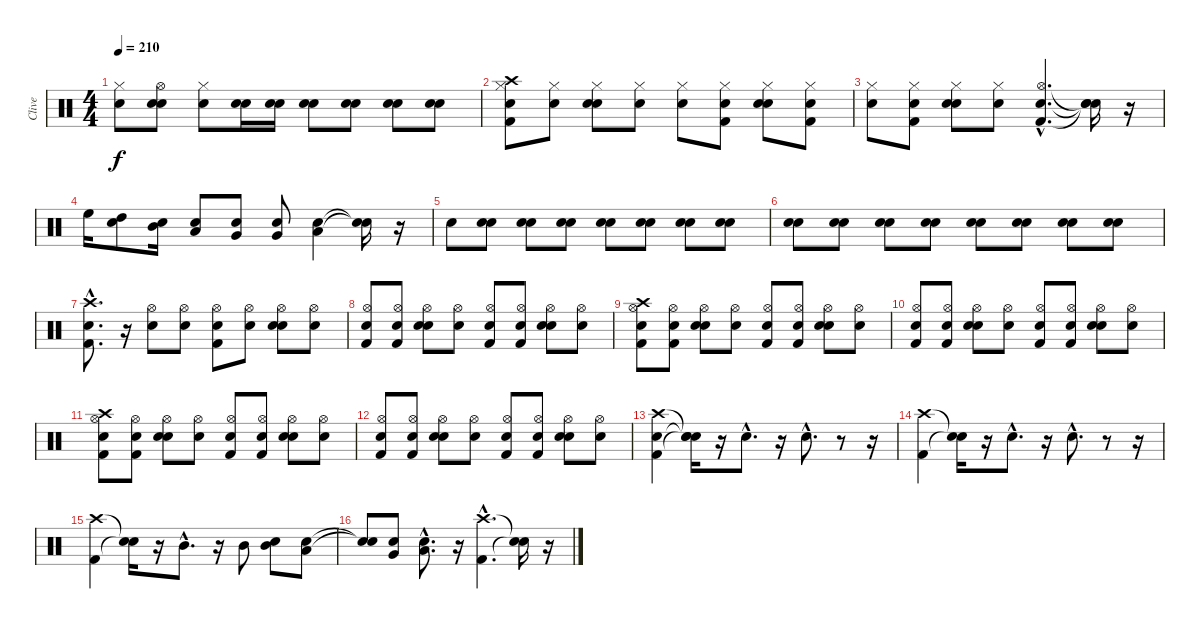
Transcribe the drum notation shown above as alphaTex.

\track ("Clive" "Clive") {instrument percussion}
\staff {score}
\articulation defaults
\ts (4 4)
\tempo 210
\clef neutral
\ks c
("Snare (hit)" "Hi-Hat (closed)").8{dy f} ("Snare (hit)" "Snare (hit) 2" "Hi-Hat (open)").8 ("Snare (hit)" "Hi-Hat (closed)").8 ("Snare (hit)" "Snare (hit) 2").16 ("Snare (hit)" "Snare (hit) 2").16 ("Snare (hit)" "Snare (hit) 2").8 ("Snare (hit)" "Snare (hit) 2").8 ("Snare (hit)" "Snare (hit) 2").8 ("Snare (hit)" "Snare (hit) 2").8 |
("Snare (hit)" "Kick (hit) 2" "Hi-Hat (closed)" "Crash high (hit)").8 ("Snare (hit)" "Hi-Hat (closed)").8 ("Snare (hit)" "Snare (hit) 2" "Hi-Hat (closed)").8 ("Snare (hit)" "Hi-Hat (closed)").8 ("Snare (hit)" "Hi-Hat (closed)").8 ("Snare (hit)" "Kick (hit) 2" "Hi-Hat (closed)").8 ("Snare (hit)" "Snare (hit) 2" "Hi-Hat (closed)").8 ("Snare (hit)" "Kick (hit) 2" "Hi-Hat (closed)").8 |
("Snare (hit)" "Hi-Hat (closed)").8 ("Snare (hit)" "Kick (hit) 2" "Hi-Hat (closed)").8 ("Snare (hit)" "Snare (hit) 2" "Hi-Hat (closed)").8 ("Snare (hit)" "Hi-Hat (closed)").8 ("Snare (hit)"{hac} "Kick (hit) 2"{hac} "Hi-Hat (open)"{hac}).4{d} ("Snare (hit)"{t} "Snare (hit)"{t} "Snare (hit)"{t}).16 r.16 |
"High Floor Tom (hit)".16 ("Snare (hit)" "High Tom (hit)").8 ("Snare (hit)" "Mid Tom (hit)").16 ("Snare (hit)" "Low Tom (hit)").8 ("Snare (hit)" "Very Low Tom (hit)").8 ("Snare (hit)" "Very Low Tom (hit)").8 ("Snare (hit)" "Low Floor Tom (hit)").4 ("Snare (hit)"{t} "Snare (hit)"{t}).16 r.16 |
"Snare (hit) 2".8 ("Snare (hit)" "Snare (hit) 2").8 ("Snare (hit)" "Snare (hit) 2").8 ("Snare (hit)" "Snare (hit) 2").8 ("Snare (hit)" "Snare (hit) 2").8 ("Snare (hit)" "Snare (hit) 2").8 ("Snare (hit)" "Snare (hit) 2").8 ("Snare (hit)" "Snare (hit) 2").8 |
("Snare (hit)" "Snare (hit) 2").8 ("Snare (hit)" "Snare (hit) 2").8 ("Snare (hit)" "Snare (hit) 2").8 ("Snare (hit)" "Snare (hit) 2").8 ("Snare (hit)" "Snare (hit) 2").8 ("Snare (hit)" "Snare (hit) 2").8 ("Snare (hit)" "Snare (hit) 2").8 ("Snare (hit)" "Snare (hit) 2").8 |
("Snare (hit)"{hac} "Kick (hit) 2"{hac} "Crash high (hit)"{hac}).8{d} r.16 ("Snare (hit) 2" "Hi-Hat (open)").8 ("Snare (hit)" "Hi-Hat (open)").8 ("Snare (hit)" "Kick (hit) 2" "Hi-Hat (open)").8 ("Snare (hit)" "Hi-Hat (open)").8 ("Snare (hit)" "Snare (hit) 2" "Hi-Hat (open)").8 ("Snare (hit)" "Hi-Hat (open)").8 |
("Snare (hit)" "Kick (hit) 2" "Hi-Hat (open)").8 ("Snare (hit)" "Kick (hit) 2" "Hi-Hat (open)").8 ("Snare (hit)" "Snare (hit) 2" "Hi-Hat (open)").8 ("Snare (hit)" "Hi-Hat (open)").8 ("Snare (hit)" "Kick (hit) 2" "Hi-Hat (open)").8 ("Snare (hit)" "Kick (hit) 2" "Hi-Hat (open)").8 ("Snare (hit)" "Snare (hit) 2" "Hi-Hat (open)").8 ("Snare (hit)" "Hi-Hat (open)").8 |
("Snare (hit)" "Kick (hit) 2" "Hi-Hat (open)" "Crash high (hit)").8 ("Snare (hit)" "Kick (hit) 2" "Hi-Hat (open)").8 ("Snare (hit)" "Snare (hit) 2" "Hi-Hat (open)").8 ("Snare (hit)" "Hi-Hat (open)").8 ("Snare (hit)" "Kick (hit) 2" "Hi-Hat (open)").8 ("Snare (hit)" "Kick (hit) 2" "Hi-Hat (open)").8 ("Snare (hit)" "Snare (hit) 2" "Hi-Hat (open)").8 ("Snare (hit)" "Hi-Hat (open)").8 |
("Snare (hit)" "Kick (hit) 2" "Hi-Hat (open)").8 ("Snare (hit)" "Kick (hit) 2" "Hi-Hat (open)").8 ("Snare (hit)" "Snare (hit) 2" "Hi-Hat (open)").8 ("Snare (hit)" "Hi-Hat (open)").8 ("Snare (hit)" "Kick (hit) 2" "Hi-Hat (open)").8 ("Snare (hit)" "Kick (hit) 2" "Hi-Hat (open)").8 ("Snare (hit)" "Snare (hit) 2" "Hi-Hat (open)").8 ("Snare (hit)" "Hi-Hat (open)").8 |
("Snare (hit)" "Kick (hit) 2" "Hi-Hat (open)" "Crash high (hit)").8 ("Snare (hit)" "Kick (hit) 2" "Hi-Hat (open)").8 ("Snare (hit)" "Snare (hit) 2" "Hi-Hat (open)").8 ("Snare (hit)" "Hi-Hat (open)").8 ("Snare (hit)" "Kick (hit) 2" "Hi-Hat (open)").8 ("Snare (hit)" "Kick (hit) 2" "Hi-Hat (open)").8 ("Snare (hit)" "Snare (hit) 2" "Hi-Hat (open)").8 ("Snare (hit)" "Hi-Hat (open)").8 |
("Snare (hit)" "Kick (hit) 2" "Hi-Hat (open)").8 ("Snare (hit)" "Kick (hit) 2" "Hi-Hat (open)").8 ("Snare (hit)" "Snare (hit) 2" "Hi-Hat (open)").8 ("Snare (hit)" "Hi-Hat (open)").8 ("Snare (hit)" "Kick (hit) 2" "Hi-Hat (open)").8 ("Snare (hit)" "Kick (hit) 2" "Hi-Hat (open)").8 ("Snare (hit)" "Snare (hit) 2" "Hi-Hat (open)").8 ("Snare (hit)" "Hi-Hat (open)").8 |
("Snare (hit)" "Kick (hit) 2" "Crash high (hit)").4 ("Snare (hit)"{t} "Snare (hit)"{t} "Snare (hit)"{t}).16 r.16 "Snare (hit) 2"{hac}.8{d} r.16 "Snare (hit) 2"{hac}.8{d} r.8 r.16 |
("Kick (hit) 2" "Crash high (hit)").4 ("Snare (hit)"{t} "Snare (hit)"{t}).16 r.16 "Snare (hit) 2"{hac}.8{d} r.16 "Snare (hit) 2"{hac}.8{d} r.8 r.16 |
("Kick (hit) 2" "Crash high (hit)").4 ("Snare (hit)"{t} "Snare (hit)"{t}).16 r.16 "Mid Tom (hit)"{hac}.8{d} r.16 "Mid Tom (hit)".8 ("Snare (hit)" "Mid Tom (hit)").8 ("Snare (hit)" "Low Tom (hit)").8 |
("Snare (hit)"{t} "Snare (hit)"{t}).8 ("Snare (hit)" "Very Low Tom (hit)").8 ("Snare (hit)"{hac} "Low Floor Tom (hit)"{hac}).8{d} r.16 ("Kick (hit) 2"{hac} "Crash high (hit)"{hac}).4{d} ("Snare (hit)"{t} "Snare (hit)"{t}).16 r.16
